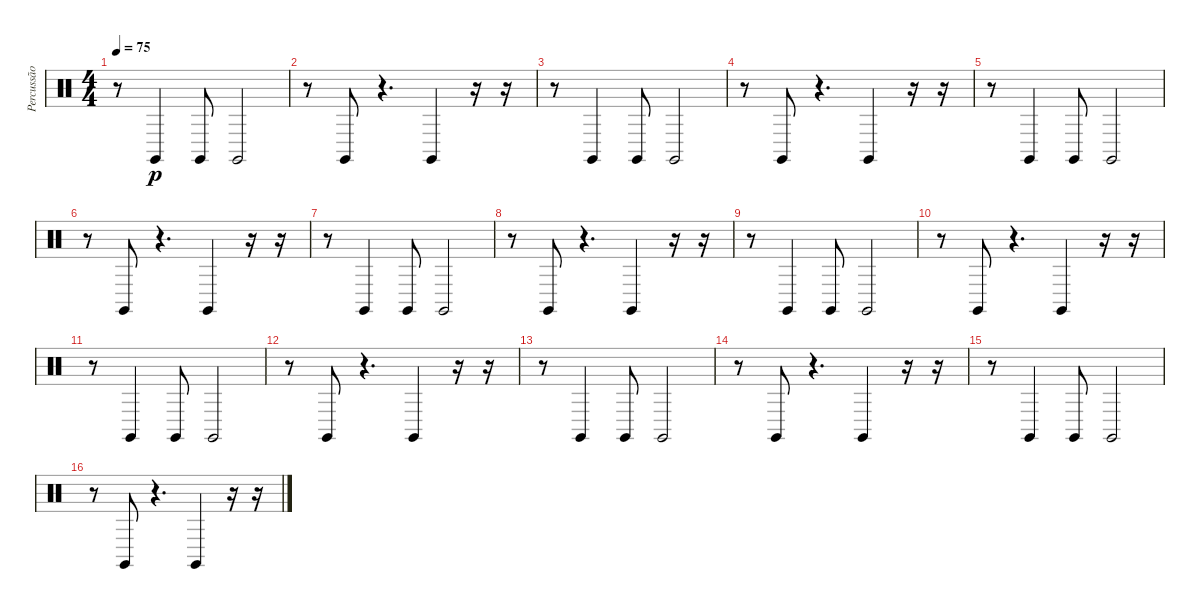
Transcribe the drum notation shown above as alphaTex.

\track ("Percussão" "Percussão") {instrument percussion}
\staff {score}
\articulation defaults
\ts (4 4)
\tempo 75
\clef neutral
\ks c
r.8{dy p} "Claves (hit)".4 "Claves (hit)".8 "Claves (hit)".2 |
r.8 "Claves (hit)".8 r.4{d} "Claves (hit)".4 r.16 r.16 |
r.8 "Claves (hit)".4 "Claves (hit)".8 "Claves (hit)".2 |
r.8 "Claves (hit)".8 r.4{d} "Claves (hit)".4 r.16 r.16 |
r.8 "Claves (hit)".4 "Claves (hit)".8 "Claves (hit)".2 |
r.8 "Claves (hit)".8 r.4{d} "Claves (hit)".4 r.16 r.16 |
r.8 "Claves (hit)".4 "Claves (hit)".8 "Claves (hit)".2 |
r.8 "Claves (hit)".8 r.4{d} "Claves (hit)".4 r.16 r.16 |
r.8 "Claves (hit)".4 "Claves (hit)".8 "Claves (hit)".2 |
r.8 "Claves (hit)".8 r.4{d} "Claves (hit)".4 r.16 r.16 |
r.8 "Claves (hit)".4 "Claves (hit)".8 "Claves (hit)".2 |
r.8 "Claves (hit)".8 r.4{d} "Claves (hit)".4 r.16 r.16 |
r.8 "Claves (hit)".4 "Claves (hit)".8 "Claves (hit)".2 |
r.8 "Claves (hit)".8 r.4{d} "Claves (hit)".4 r.16 r.16 |
r.8 "Claves (hit)".4 "Claves (hit)".8 "Claves (hit)".2 |
r.8 "Claves (hit)".8 r.4{d} "Claves (hit)".4 r.16 r.16
